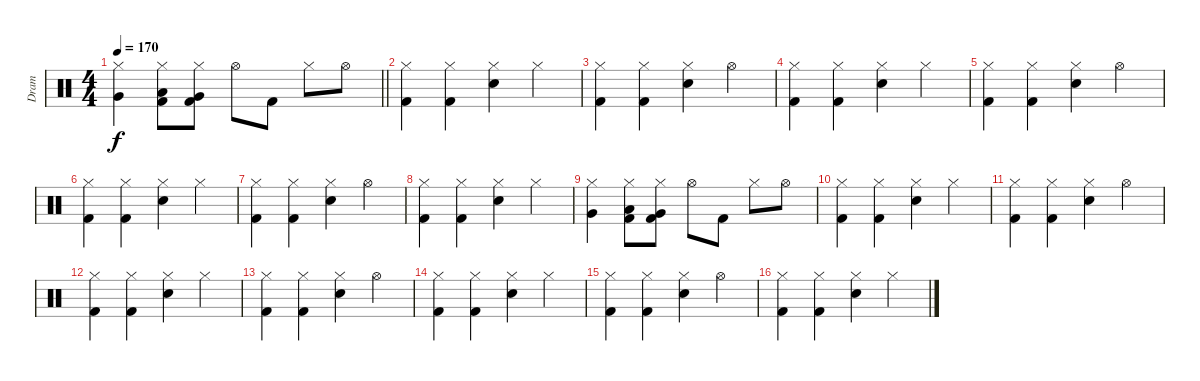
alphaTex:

\track ("Dram" "Dram") {instrument percussion}
\staff {score}
\articulation defaults
\ts (4 4)
\tempo 170
\clef neutral
\barLineRight lightlight
\ks c
("Hi-Hat (closed)" "Very Low Tom (hit)").4{dy f} ("Hi-Hat (closed)" "Low Tom (hit)" "Kick (hit) 2").8 ("Hi-Hat (closed)" "Very Low Tom (hit)" "Kick (hit) 2").8 "Hi-Hat (open)".8 "Kick (hit) 2".8 "Hi-Hat (closed)".8 "Hi-Hat (open)".8 |
("Hi-Hat (closed)" "Kick (hit) 2").4 ("Hi-Hat (closed)" "Kick (hit) 2").4 ("Hi-Hat (closed)" "Electric Snare (hit)").4 "Hi-Hat (closed)".4 |
("Hi-Hat (closed)" "Kick (hit) 2").4 ("Hi-Hat (closed)" "Kick (hit) 2").4 ("Hi-Hat (closed)" "Electric Snare (hit)").4 "Hi-Hat (open)".4 |
("Hi-Hat (closed)" "Kick (hit) 2").4 ("Hi-Hat (closed)" "Kick (hit) 2").4 ("Hi-Hat (closed)" "Electric Snare (hit)").4 "Hi-Hat (closed)".4 |
("Hi-Hat (closed)" "Kick (hit) 2").4 ("Hi-Hat (closed)" "Kick (hit) 2").4 ("Hi-Hat (closed)" "Electric Snare (hit)").4 "Hi-Hat (open)".4 |
("Hi-Hat (closed)" "Kick (hit) 2").4 ("Hi-Hat (closed)" "Kick (hit) 2").4 ("Hi-Hat (closed)" "Electric Snare (hit)").4 "Hi-Hat (closed)".4 |
("Hi-Hat (closed)" "Kick (hit) 2").4 ("Hi-Hat (closed)" "Kick (hit) 2").4 ("Hi-Hat (closed)" "Electric Snare (hit)").4 "Hi-Hat (open)".4 |
("Hi-Hat (closed)" "Kick (hit) 2").4 ("Hi-Hat (closed)" "Kick (hit) 2").4 ("Hi-Hat (closed)" "Electric Snare (hit)").4 "Hi-Hat (closed)".4 |
("Hi-Hat (closed)" "Very Low Tom (hit)").4 ("Hi-Hat (closed)" "Low Tom (hit)" "Kick (hit) 2").8 ("Hi-Hat (closed)" "Very Low Tom (hit)" "Kick (hit) 2").8 "Hi-Hat (open)".8 "Kick (hit) 2".8 "Hi-Hat (closed)".8 "Hi-Hat (open)".8 |
("Hi-Hat (closed)" "Kick (hit) 2").4 ("Hi-Hat (closed)" "Kick (hit) 2").4 ("Hi-Hat (closed)" "Electric Snare (hit)").4 "Hi-Hat (closed)".4 |
("Hi-Hat (closed)" "Kick (hit) 2").4 ("Hi-Hat (closed)" "Kick (hit) 2").4 ("Hi-Hat (closed)" "Electric Snare (hit)").4 "Hi-Hat (open)".4 |
("Hi-Hat (closed)" "Kick (hit) 2").4 ("Hi-Hat (closed)" "Kick (hit) 2").4 ("Hi-Hat (closed)" "Electric Snare (hit)").4 "Hi-Hat (closed)".4 |
("Hi-Hat (closed)" "Kick (hit) 2").4 ("Hi-Hat (closed)" "Kick (hit) 2").4 ("Hi-Hat (closed)" "Electric Snare (hit)").4 "Hi-Hat (open)".4 |
("Hi-Hat (closed)" "Kick (hit) 2").4 ("Hi-Hat (closed)" "Kick (hit) 2").4 ("Hi-Hat (closed)" "Electric Snare (hit)").4 "Hi-Hat (closed)".4 |
("Hi-Hat (closed)" "Kick (hit) 2").4 ("Hi-Hat (closed)" "Kick (hit) 2").4 ("Hi-Hat (closed)" "Electric Snare (hit)").4 "Hi-Hat (open)".4 |
("Hi-Hat (closed)" "Kick (hit) 2").4 ("Hi-Hat (closed)" "Kick (hit) 2").4 ("Hi-Hat (closed)" "Electric Snare (hit)").4 "Hi-Hat (closed)".4
